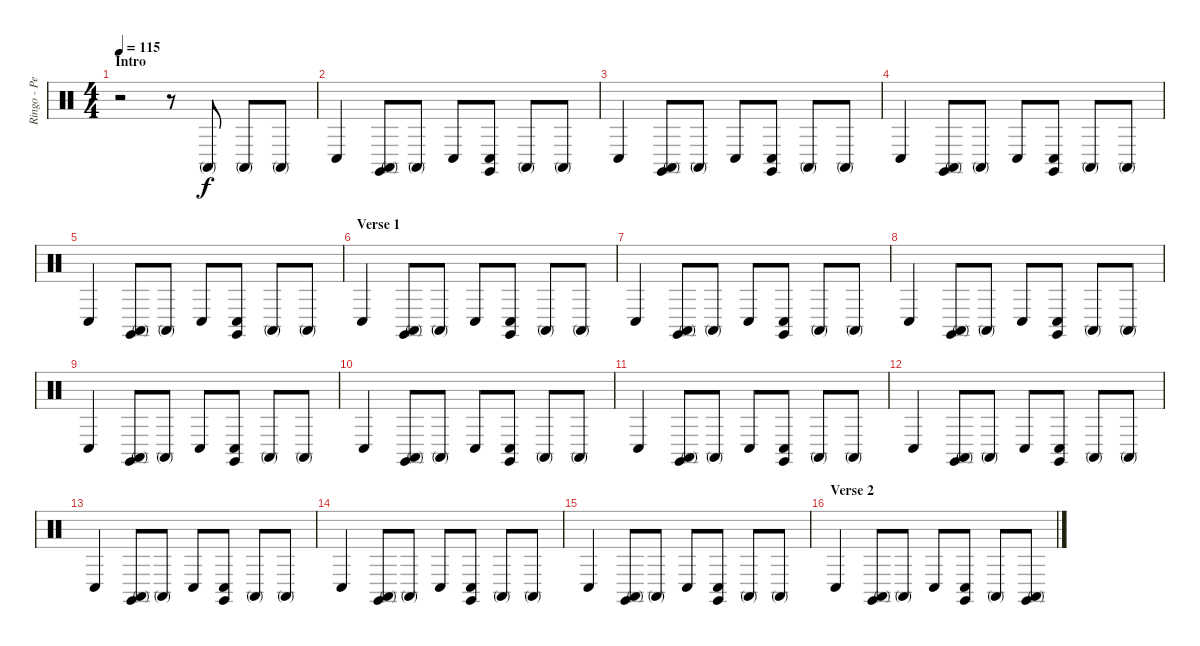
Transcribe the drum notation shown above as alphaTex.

\track ("Ringo - Percussion" "Ringo - Pe") {instrument percussion}
\staff {score}
\articulation defaults
\ts (4 4)
\section ("" "Intro")
\tempo 115
\clef neutral
\ks c
r.2{dy f} r.8 "Conga high (mute)".8 "Conga high (mute)".8 "Conga high (mute)".8 |
"Conga low (hit)".4 ("Conga high (mute)" "Claves (hit)").8 "Conga high (mute)".8 "Conga low (hit)".8 ("Conga low (hit)" "Claves (hit)").8 "Conga high (mute)".8 "Conga high (mute)".8 |
"Conga low (hit)".4 ("Conga high (mute)" "Claves (hit)").8 "Conga high (mute)".8 "Conga low (hit)".8 ("Conga low (hit)" "Claves (hit)").8 "Conga high (mute)".8 "Conga high (mute)".8 |
"Conga low (hit)".4 ("Conga high (mute)" "Claves (hit)").8 "Conga high (mute)".8 "Conga low (hit)".8 ("Conga low (hit)" "Claves (hit)").8 "Conga high (mute)".8 "Conga high (mute)".8 |
"Conga low (hit)".4 ("Conga high (mute)" "Claves (hit)").8 "Conga high (mute)".8 "Conga low (hit)".8 ("Conga low (hit)" "Claves (hit)").8 "Conga high (mute)".8 "Conga high (mute)".8 |
\section ("" "Verse 1")
"Conga low (hit)".4 ("Conga high (mute)" "Claves (hit)").8 "Conga high (mute)".8 "Conga low (hit)".8 ("Conga low (hit)" "Claves (hit)").8 "Conga high (mute)".8 "Conga high (mute)".8 |
"Conga low (hit)".4 ("Conga high (mute)" "Claves (hit)").8 "Conga high (mute)".8 "Conga low (hit)".8 ("Conga low (hit)" "Claves (hit)").8 "Conga high (mute)".8 "Conga high (mute)".8 |
"Conga low (hit)".4 ("Conga high (mute)" "Claves (hit)").8 "Conga high (mute)".8 "Conga low (hit)".8 ("Conga low (hit)" "Claves (hit)").8 "Conga high (mute)".8 "Conga high (mute)".8 |
"Conga low (hit)".4 ("Conga high (mute)" "Claves (hit)").8 "Conga high (mute)".8 "Conga low (hit)".8 ("Conga low (hit)" "Claves (hit)").8 "Conga high (mute)".8 "Conga high (mute)".8 |
"Conga low (hit)".4 ("Conga high (mute)" "Claves (hit)").8 "Conga high (mute)".8 "Conga low (hit)".8 ("Conga low (hit)" "Claves (hit)").8 "Conga high (mute)".8 "Conga high (mute)".8 |
"Conga low (hit)".4 ("Conga high (mute)" "Claves (hit)").8 "Conga high (mute)".8 "Conga low (hit)".8 ("Conga low (hit)" "Claves (hit)").8 "Conga high (mute)".8 "Conga high (mute)".8 |
"Conga low (hit)".4 ("Conga high (mute)" "Claves (hit)").8 "Conga high (mute)".8 "Conga low (hit)".8 ("Conga low (hit)" "Claves (hit)").8 "Conga high (mute)".8 "Conga high (mute)".8 |
"Conga low (hit)".4 ("Conga high (mute)" "Claves (hit)").8 "Conga high (mute)".8 "Conga low (hit)".8 ("Conga low (hit)" "Claves (hit)").8 "Conga high (mute)".8 "Conga high (mute)".8 |
"Conga low (hit)".4 ("Conga high (mute)" "Claves (hit)").8 "Conga high (mute)".8 "Conga low (hit)".8 ("Conga low (hit)" "Claves (hit)").8 "Conga high (mute)".8 "Conga high (mute)".8 |
"Conga low (hit)".4 ("Conga high (mute)" "Claves (hit)").8 "Conga high (mute)".8 "Conga low (hit)".8 ("Conga low (hit)" "Claves (hit)").8 "Conga high (mute)".8 "Conga high (mute)".8 |
\section ("" "Verse 2")
"Conga low (hit)".4 ("Conga high (mute)" "Claves (hit)").8 "Conga high (mute)".8 "Conga low (hit)".8 ("Conga low (hit)" "Claves (hit)").8 "Conga high (mute)".8 ("Conga high (mute)" "Claves (hit)").8
